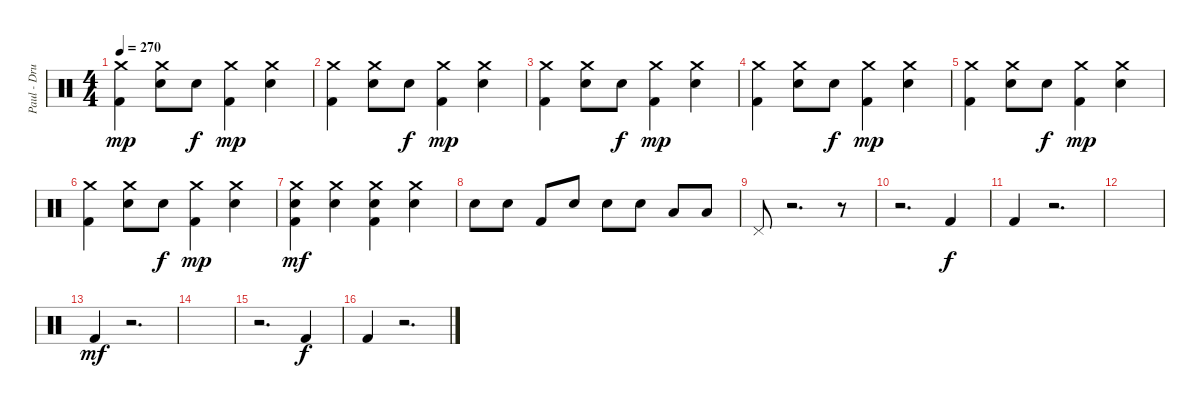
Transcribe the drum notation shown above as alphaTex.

\track ("Paul - Drums" "Paul - Dru") {instrument percussion}
\staff {score}
\articulation defaults
\ts (4 4)
\tempo 270
\clef neutral
\ks c
("Crash medium (hit)" "Kick (hit) 2").4{dy mp} ("Crash medium (hit)" "Electric Snare (hit)").8 "Electric Snare (hit)".8{dy f} ("Crash medium (hit)" "Kick (hit) 2").4{dy mp} ("Crash medium (hit)" "Electric Snare (hit)").4 |
("Crash medium (hit)" "Kick (hit) 2").4 ("Crash medium (hit)" "Electric Snare (hit)").8 "Electric Snare (hit)".8{dy f} ("Crash medium (hit)" "Kick (hit) 2").4{dy mp} ("Crash medium (hit)" "Electric Snare (hit)").4 |
("Crash medium (hit)" "Kick (hit) 2").4 ("Crash medium (hit)" "Electric Snare (hit)").8 "Electric Snare (hit)".8{dy f} ("Crash medium (hit)" "Kick (hit) 2").4{dy mp} ("Crash medium (hit)" "Electric Snare (hit)").4 |
("Crash medium (hit)" "Kick (hit) 2").4 ("Crash medium (hit)" "Electric Snare (hit)").8 "Electric Snare (hit)".8{dy f} ("Crash medium (hit)" "Kick (hit) 2").4{dy mp} ("Crash medium (hit)" "Electric Snare (hit)").4 |
("Crash medium (hit)" "Kick (hit) 2").4 ("Crash medium (hit)" "Electric Snare (hit)").8 "Electric Snare (hit)".8{dy f} ("Crash medium (hit)" "Kick (hit) 2").4{dy mp} ("Crash medium (hit)" "Electric Snare (hit)").4 |
("Crash medium (hit)" "Kick (hit) 2").4 ("Crash medium (hit)" "Electric Snare (hit)").8 "Electric Snare (hit)".8{dy f} ("Crash medium (hit)" "Kick (hit) 2").4{dy mp} ("Crash medium (hit)" "Electric Snare (hit)").4 |
("Crash medium (hit)" "Electric Snare (hit)" "Kick (hit) 2").4{dy mf} ("Crash medium (hit)" "Electric Snare (hit)").4 ("Crash medium (hit)" "Electric Snare (hit)" "Kick (hit) 2").4 ("Crash medium (hit)" "Electric Snare (hit)").4 |
"Electric Snare (hit)".8 "Electric Snare (hit)".8 "Kick (hit) 2".8 "Electric Snare (hit)".8 "Electric Snare (hit)".8 "Electric Snare (hit)".8 "Low Tom (hit)".8 "Low Floor Tom (hit)".8 |
"Pedal Hi-Hat (hit)".8 r.2{d} r.8 |
r.2{d} "Kick (hit) 2".4{dy f} |
"Kick (hit) 2".4 r.2{d} |
|
"Kick (hit) 2".4{dy mf} r.2{d} |
|
r.2{d} "Kick (hit) 2".4{dy f} |
"Kick (hit) 2".4 r.2{d}
